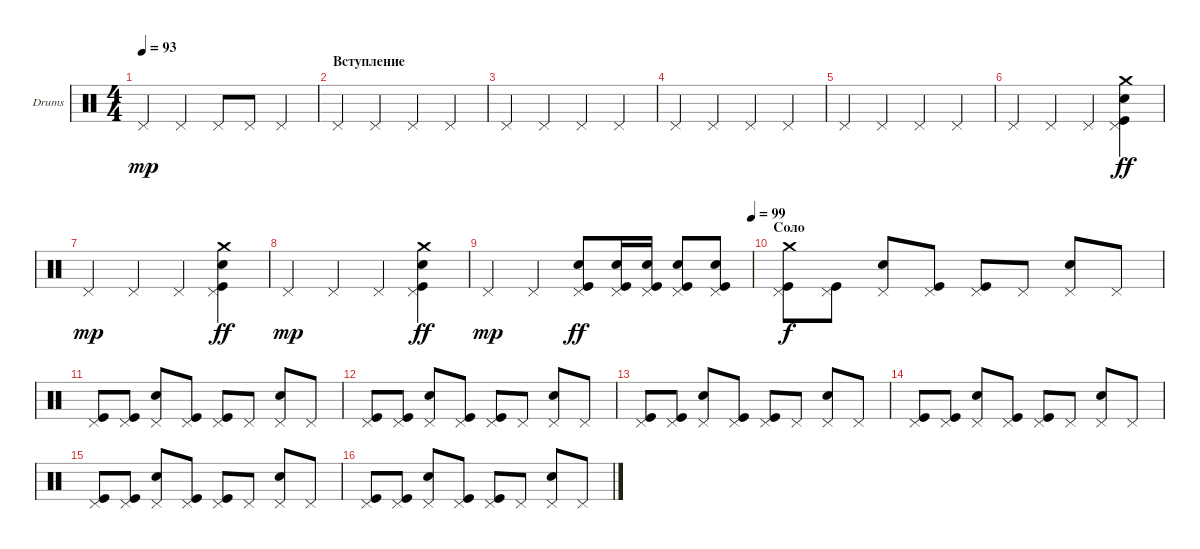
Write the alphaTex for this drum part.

\defaultSystemsLayout 4
\bracketExtendMode groupsimilarinstruments
\firstSystemTrackNameOrientation horizontal
\otherSystemsTrackNameOrientation horizontal
\track ("Е. Кулаков" "Drums") {instrument percussion}
\staff {score}
\articulation defaults
\ts (4 4)
\tempo 93
\clef neutral
\ks c "Pedal Hi-Hat (hit)".4{dy mp} "Pedal Hi-Hat (hit)".4 "Pedal Hi-Hat (hit)".8 "Pedal Hi-Hat (hit)".8 "Pedal Hi-Hat (hit)".4
|
\section ("" "Вступление")
"Pedal Hi-Hat (hit)".4 "Pedal Hi-Hat (hit)".4 "Pedal Hi-Hat (hit)".4 "Pedal Hi-Hat (hit)".4 |
"Pedal Hi-Hat (hit)".4 "Pedal Hi-Hat (hit)".4 "Pedal Hi-Hat (hit)".4 "Pedal Hi-Hat (hit)".4 |
"Pedal Hi-Hat (hit)".4 "Pedal Hi-Hat (hit)".4 "Pedal Hi-Hat (hit)".4 "Pedal Hi-Hat (hit)".4 |
"Pedal Hi-Hat (hit)".4 "Pedal Hi-Hat (hit)".4 "Pedal Hi-Hat (hit)".4 "Pedal Hi-Hat (hit)".4 |
"Pedal Hi-Hat (hit)".4 "Pedal Hi-Hat (hit)".4 "Pedal Hi-Hat (hit)".4 ("Pedal Hi-Hat (hit)" "Kick (hit)" "Snare (hit) 2" "Crash medium (hit)").4{dy ff} |
"Pedal Hi-Hat (hit)".4{dy mp} "Pedal Hi-Hat (hit)".4 "Pedal Hi-Hat (hit)".4 ("Pedal Hi-Hat (hit)" "Kick (hit)" "Snare (hit) 2" "Crash medium (hit)").4{dy ff} |
"Pedal Hi-Hat (hit)".4{dy mp} "Pedal Hi-Hat (hit)".4 "Pedal Hi-Hat (hit)".4 ("Pedal Hi-Hat (hit)" "Kick (hit)" "Snare (hit) 2" "Crash medium (hit)").4{dy ff} |
\tempo (99 1)
"Pedal Hi-Hat (hit)".4{dy mp} "Pedal Hi-Hat (hit)".4 ("Pedal Hi-Hat (hit)" "Snare (hit) 2" "Kick (hit)").8{dy ff} ("Pedal Hi-Hat (hit)" "Snare (hit) 2" "Kick (hit)").16 ("Pedal Hi-Hat (hit)" "Snare (hit) 2" "Kick (hit)").16 ("Pedal Hi-Hat (hit)" "Snare (hit) 2" "Kick (hit)").8 ("Pedal Hi-Hat (hit)" "Kick (hit)" "Snare (hit) 2").8 |
\section ("" "Соло")
("Pedal Hi-Hat (hit)" "Kick (hit)" "Crash medium (hit)").8{dy f} ("Pedal Hi-Hat (hit)" "Kick (hit)").8 ("Snare (hit) 2" "Pedal Hi-Hat (hit)").8 ("Pedal Hi-Hat (hit)" "Kick (hit)").8 ("Pedal Hi-Hat (hit)" "Kick (hit)").8 "Pedal Hi-Hat (hit)".8 ("Snare (hit) 2" "Pedal Hi-Hat (hit)").8 "Pedal Hi-Hat (hit)".8 |
("Pedal Hi-Hat (hit)" "Kick (hit)").8 ("Pedal Hi-Hat (hit)" "Kick (hit)").8 ("Snare (hit) 2" "Pedal Hi-Hat (hit)").8 ("Pedal Hi-Hat (hit)" "Kick (hit)").8 ("Pedal Hi-Hat (hit)" "Kick (hit)").8 "Pedal Hi-Hat (hit)".8 ("Snare (hit) 2" "Pedal Hi-Hat (hit)").8 "Pedal Hi-Hat (hit)".8 |
("Pedal Hi-Hat (hit)" "Kick (hit)").8 ("Pedal Hi-Hat (hit)" "Kick (hit)").8 ("Snare (hit) 2" "Pedal Hi-Hat (hit)").8 ("Pedal Hi-Hat (hit)" "Kick (hit)").8 ("Pedal Hi-Hat (hit)" "Kick (hit)").8 "Pedal Hi-Hat (hit)".8 ("Snare (hit) 2" "Pedal Hi-Hat (hit)").8 "Pedal Hi-Hat (hit)".8 |
("Pedal Hi-Hat (hit)" "Kick (hit)").8 ("Pedal Hi-Hat (hit)" "Kick (hit)").8 ("Snare (hit) 2" "Pedal Hi-Hat (hit)").8 ("Pedal Hi-Hat (hit)" "Kick (hit)").8 ("Pedal Hi-Hat (hit)" "Kick (hit)").8 "Pedal Hi-Hat (hit)".8 ("Snare (hit) 2" "Pedal Hi-Hat (hit)").8 "Pedal Hi-Hat (hit)".8 |
("Pedal Hi-Hat (hit)" "Kick (hit)").8 ("Pedal Hi-Hat (hit)" "Kick (hit)").8 ("Snare (hit) 2" "Pedal Hi-Hat (hit)").8 ("Pedal Hi-Hat (hit)" "Kick (hit)").8 ("Pedal Hi-Hat (hit)" "Kick (hit)").8 "Pedal Hi-Hat (hit)".8 ("Snare (hit) 2" "Pedal Hi-Hat (hit)").8 "Pedal Hi-Hat (hit)".8 |
("Pedal Hi-Hat (hit)" "Kick (hit)").8 ("Pedal Hi-Hat (hit)" "Kick (hit)").8 ("Snare (hit) 2" "Pedal Hi-Hat (hit)").8 ("Pedal Hi-Hat (hit)" "Kick (hit)").8 ("Pedal Hi-Hat (hit)" "Kick (hit)").8 "Pedal Hi-Hat (hit)".8 ("Snare (hit) 2" "Pedal Hi-Hat (hit)").8 "Pedal Hi-Hat (hit)".8 |
("Pedal Hi-Hat (hit)" "Kick (hit)").8 ("Pedal Hi-Hat (hit)" "Kick (hit)").8 ("Snare (hit) 2" "Pedal Hi-Hat (hit)").8 ("Pedal Hi-Hat (hit)" "Kick (hit)").8 ("Pedal Hi-Hat (hit)" "Kick (hit)").8 "Pedal Hi-Hat (hit)".8 ("Snare (hit) 2" "Pedal Hi-Hat (hit)").8 "Pedal Hi-Hat (hit)".8
